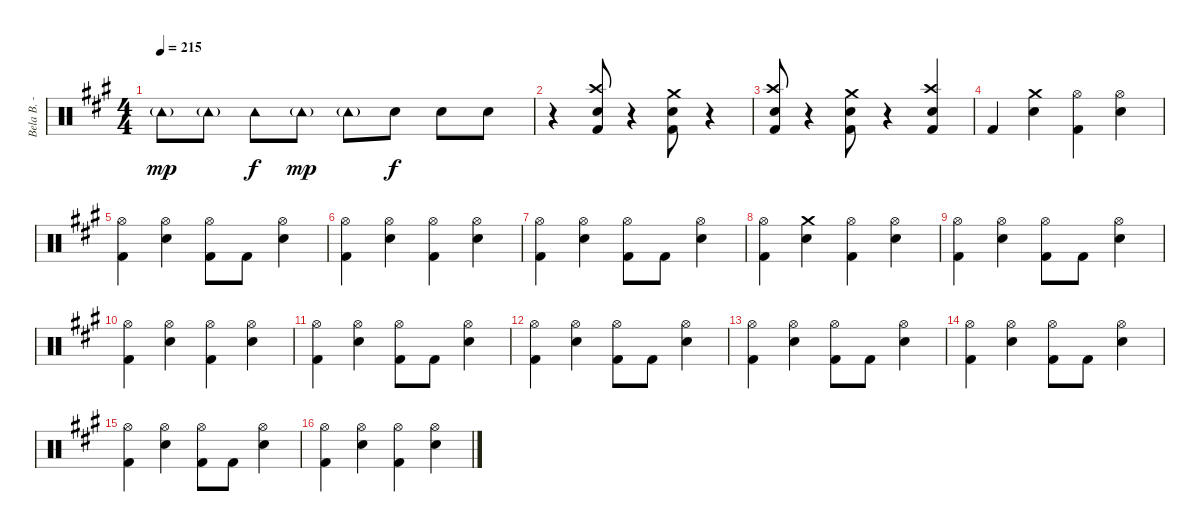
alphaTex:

\track ("Bela B. - Schlagzeug" "Bela B. - ") {instrument percussion}
\staff {score}
\articulation defaults
\ts (4 4)
\tempo 215
\clef neutral
\ks a "Tambourine (hit)"{g}.8{dy mp} "Tambourine (hit)"{g}.8 "Tambourine (hit)".8{dy f} "Tambourine (hit)"{g}.8{dy mp} "Tambourine (hit)"{g}.8 "Snare (hit) 2".8{dy f} "Snare (hit) 2".8 "Snare (hit) 2".8
|
r.4 ("Crash high (hit)" "Snare (hit) 2" "Kick (hit) 2").8 r.4 ("Crash medium (hit)" "Snare (hit) 2" "Kick (hit) 2").8 r.4 |
("Crash high (hit)" "Snare (hit) 2" "Kick (hit) 2").8 r.4 ("Crash medium (hit)" "Snare (hit) 2" "Kick (hit) 2").8 r.4 ("Crash high (hit)" "Snare (hit) 2" "Kick (hit) 2").4 |
"Kick (hit) 2".4 ("Crash medium (hit)" "Snare (hit) 2").4 ("Hi-Hat (open)" "Kick (hit) 2").4 ("Hi-Hat (open)" "Snare (hit) 2").4 |
("Hi-Hat (open)" "Kick (hit) 2").4 ("Hi-Hat (open)" "Snare (hit) 2").4 ("Hi-Hat (open)" "Kick (hit) 2").8 "Kick (hit) 2".8 ("Hi-Hat (open)" "Snare (hit) 2").4 |
("Hi-Hat (open)" "Kick (hit) 2").4 ("Hi-Hat (open)" "Snare (hit) 2").4 ("Hi-Hat (open)" "Kick (hit) 2").4 ("Hi-Hat (open)" "Snare (hit) 2").4 |
("Hi-Hat (open)" "Kick (hit) 2").4 ("Hi-Hat (open)" "Snare (hit) 2").4 ("Hi-Hat (open)" "Kick (hit) 2").8 "Kick (hit) 2".8 ("Hi-Hat (open)" "Snare (hit) 2").4 |
("Hi-Hat (open)" "Kick (hit) 2").4 ("Crash medium (hit)" "Snare (hit) 2").4 ("Hi-Hat (open)" "Kick (hit) 2").4 ("Hi-Hat (open)" "Snare (hit) 2").4 |
("Hi-Hat (open)" "Kick (hit) 2").4 ("Hi-Hat (open)" "Snare (hit) 2").4 ("Hi-Hat (open)" "Kick (hit) 2").8 "Kick (hit) 2".8 ("Hi-Hat (open)" "Snare (hit) 2").4 |
("Hi-Hat (open)" "Kick (hit) 2").4 ("Hi-Hat (open)" "Snare (hit) 2").4 ("Hi-Hat (open)" "Kick (hit) 2").4 ("Hi-Hat (open)" "Snare (hit) 2").4 |
("Hi-Hat (open)" "Kick (hit) 2").4 ("Hi-Hat (open)" "Snare (hit) 2").4 ("Hi-Hat (open)" "Kick (hit) 2").8 "Kick (hit) 2".8 ("Hi-Hat (open)" "Snare (hit) 2").4 |
("Hi-Hat (open)" "Kick (hit) 2").4 ("Hi-Hat (open)" "Snare (hit) 2").4 ("Hi-Hat (open)" "Kick (hit) 2").8 "Kick (hit) 2".8 ("Hi-Hat (open)" "Snare (hit) 2").4 |
("Hi-Hat (open)" "Kick (hit) 2").4 ("Hi-Hat (open)" "Snare (hit) 2").4 ("Hi-Hat (open)" "Kick (hit) 2").8 "Kick (hit) 2".8 ("Hi-Hat (open)" "Snare (hit) 2").4 |
("Hi-Hat (open)" "Kick (hit) 2").4 ("Hi-Hat (open)" "Snare (hit) 2").4 ("Hi-Hat (open)" "Kick (hit) 2").8 "Kick (hit) 2".8 ("Hi-Hat (open)" "Snare (hit) 2").4 |
("Hi-Hat (open)" "Kick (hit) 2").4 ("Hi-Hat (open)" "Snare (hit) 2").4 ("Hi-Hat (open)" "Kick (hit) 2").8 "Kick (hit) 2".8 ("Hi-Hat (open)" "Snare (hit) 2").4 |
("Hi-Hat (open)" "Kick (hit) 2").4 ("Hi-Hat (open)" "Snare (hit) 2").4 ("Hi-Hat (open)" "Kick (hit) 2").4 ("Hi-Hat (open)" "Snare (hit) 2").4
